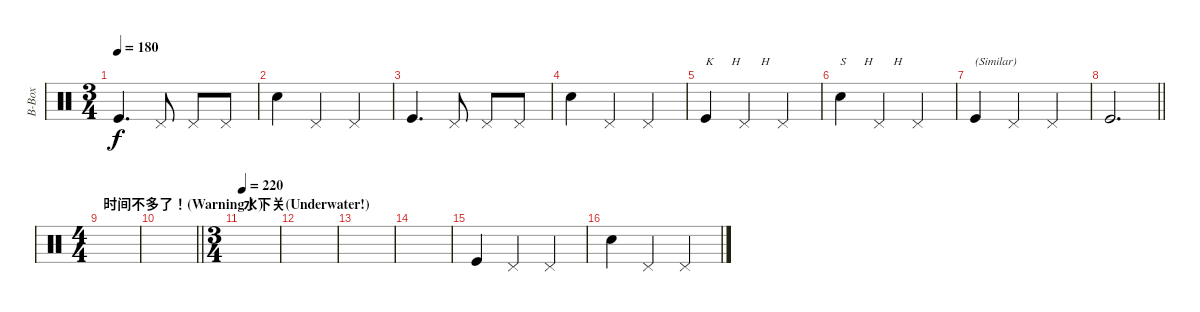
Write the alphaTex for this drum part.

\track ("B-Box" "B-Box") {instrument percussion}
\staff {score}
\articulation defaults
\ts (3 4)
\tempo 180
\clef neutral
\ks c "Kick (hit)".4{d dy f} "Pedal Hi-Hat (hit)".8 "Pedal Hi-Hat (hit)".8 "Pedal Hi-Hat (hit)".8
|
"Snare (hit) 2".4 "Pedal Hi-Hat (hit)".4 "Pedal Hi-Hat (hit)".4 |
"Kick (hit)".4{d} "Pedal Hi-Hat (hit)".8 "Pedal Hi-Hat (hit)".8 "Pedal Hi-Hat (hit)".8 |
"Snare (hit) 2".4 "Pedal Hi-Hat (hit)".4 "Pedal Hi-Hat (hit)".4 |
"Kick (hit)".4{txt "K      H       H"} "Pedal Hi-Hat (hit)".4 "Pedal Hi-Hat (hit)".4 |
"Snare (hit) 2".4{txt "S      H       H"} "Pedal Hi-Hat (hit)".4 "Pedal Hi-Hat (hit)".4 |
"Kick (hit)".4{txt "(Similar)"} "Pedal Hi-Hat (hit)".4 "Pedal Hi-Hat (hit)".4 |
\barLineRight lightlight "Kick (hit)".2{d}
|
\ts (4 4)
\section ("" "时间不多了！(Warning！)")
|
\barLineRight lightlight
|
\ts (3 4)
\section ("" "水下关(Underwater!)")
\tempo 220
|
|
|
|
"Kick (hit)".4 "Pedal Hi-Hat (hit)".4 "Pedal Hi-Hat (hit)".4 |
"Snare (hit) 2".4 "Pedal Hi-Hat (hit)".4 "Pedal Hi-Hat (hit)".4
